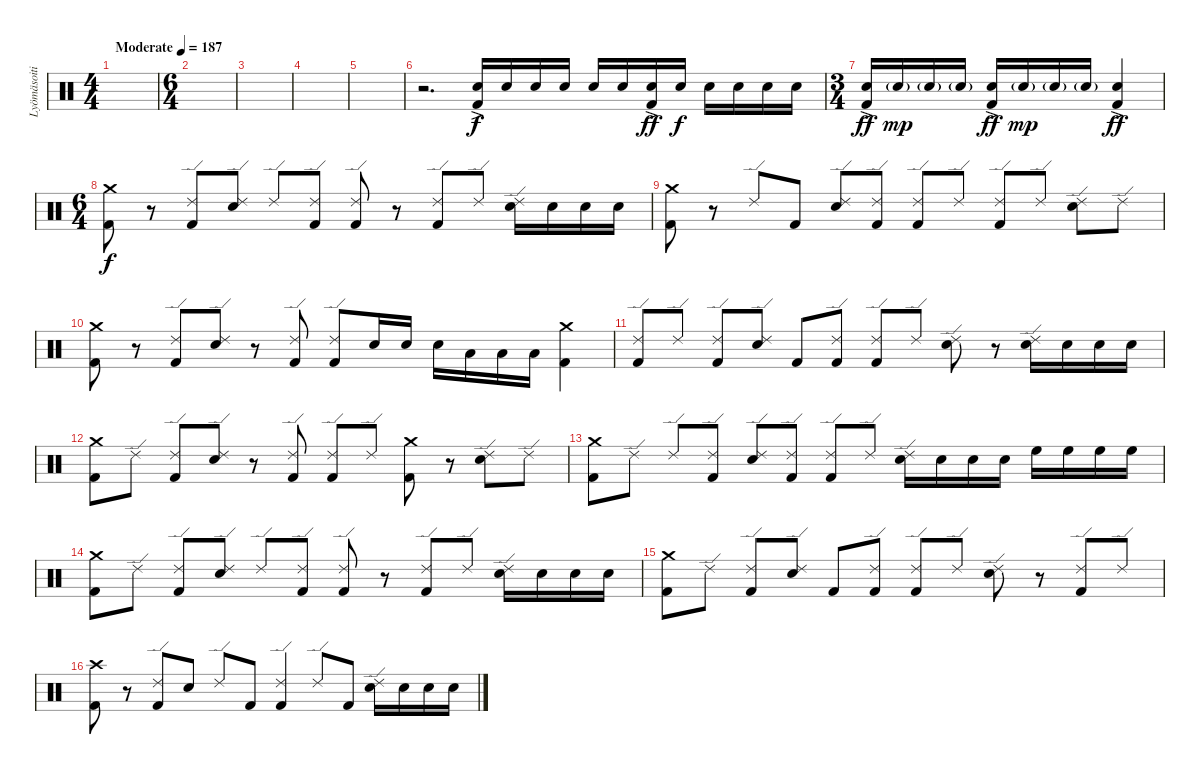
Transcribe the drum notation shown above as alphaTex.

\track ("Lyömäsoitin" "Lyömäsoiti") {instrument percussion}
\staff {score}
\articulation defaults
\ts (4 4)
\tempo (187 "Moderate")
\clef neutral
\ks c
|
\ts (6 4)
|
|
|
|
r.2{d} ("Kick (hit) 2" "Snare (hit) 2"{ac}).16 "Snare (hit) 2".16{dy f} "Snare (hit) 2".16 "Snare (hit) 2".16 "Snare (hit) 2".16 "Snare (hit) 2".16 ("Kick (hit) 2" "Snare (hit) 2"{ac}).16{dy ff} "Snare (hit) 2".16{dy f} "Snare (hit) 2".16 "Snare (hit) 2".16 "Snare (hit) 2".16 "Snare (hit) 2".16 |
\ts (3 4)
("Kick (hit) 2" "Snare (hit) 2"{ac}).16{dy ff} "Snare (hit) 2"{g}.16{dy mp} "Snare (hit) 2"{g}.16 "Snare (hit) 2"{g}.16 ("Snare (hit) 2"{ac} "Kick (hit) 2").16{dy ff} "Snare (hit) 2"{g}.16{dy mp} "Snare (hit) 2"{g}.16 "Snare (hit) 2"{g}.16 ("Snare (hit) 2"{ac} "Kick (hit) 2").4{dy ff} |
\ts (6 4)
("Kick (hit) 2" "Crash medium (hit)").8{dy f} r.8 ("Kick (hit) 2" "Ride (edge) 2").8 ("Snare (hit) 2" "Ride (edge) 2").8 "Ride (edge) 2".8 ("Ride (edge) 2" "Kick (hit) 2").8 ("Ride (edge) 2" "Kick (hit) 2").8 r.8 ("Ride (edge) 2" "Kick (hit) 2").8 "Ride (edge) 2".8 ("Ride (edge) 2" "Snare (hit) 2").16 "Snare (hit) 2".16 "Snare (hit) 2".16 "Snare (hit) 2".16 |
("Kick (hit) 2" "Crash medium (hit)").8 r.8 "Ride (edge) 2".8 "Kick (hit) 2".8 ("Ride (edge) 2" "Snare (hit) 2").8 ("Ride (edge) 2" "Kick (hit) 2").8 ("Ride (edge) 2" "Kick (hit) 2").8 "Ride (edge) 2".8 ("Ride (edge) 2" "Kick (hit) 2").8 "Ride (edge) 2".8 ("Ride (edge) 2" "Snare (hit) 2").8 "Ride (edge) 2".8 |
("Kick (hit) 2" "Crash medium (hit)").8 r.8 ("Kick (hit) 2" "Ride (edge) 2").8 ("Snare (hit) 2" "Ride (edge) 2").8 r.8 ("Ride (edge) 2" "Kick (hit) 2").8 ("Ride (edge) 2" "Kick (hit) 2").8 "Snare (hit) 2".16 "Snare (hit) 2".16 "Snare (hit) 2".16 "Low Tom (hit)".16 "Low Tom (hit)".16 "Low Tom (hit)".16 ("Kick (hit) 2" "Crash medium (hit)").4 |
("Kick (hit) 2" "Ride (edge) 2").8 "Ride (edge) 2".8 ("Kick (hit) 2" "Ride (edge) 2").8 ("Ride (edge) 2" "Snare (hit) 2").8 "Kick (hit) 2".8 ("Kick (hit) 2" "Ride (edge) 2").8 ("Ride (edge) 2" "Kick (hit) 2").8 "Ride (edge) 2".8 ("Ride (edge) 2" "Snare (hit) 2").8 r.8 ("Ride (edge) 2" "Snare (hit) 2").16 "Snare (hit) 2".16 "Snare (hit) 2".16 "Snare (hit) 2".16 |
("Kick (hit) 2" "Crash medium (hit)").8 "Ride (edge) 2".8 ("Kick (hit) 2" "Ride (edge) 2").8 ("Snare (hit) 2" "Ride (edge) 2").8 r.8 ("Ride (edge) 2" "Kick (hit) 2").8 ("Ride (edge) 2" "Kick (hit) 2").8 "Ride (edge) 2".8 ("Crash medium (hit)" "Kick (hit) 2").8 r.8 ("Ride (edge) 2" "Snare (hit) 2").8 "Ride (edge) 2".8 |
("Kick (hit) 2" "Crash medium (hit)").8 "Ride (edge) 2".8 "Ride (edge) 2".8 ("Kick (hit) 2" "Ride (edge) 2").8 ("Ride (edge) 2" "Snare (hit) 2").8 ("Ride (edge) 2" "Kick (hit) 2").8 ("Ride (edge) 2" "Kick (hit) 2").8 "Ride (edge) 2".8 ("Ride (edge) 2" "Snare (hit) 2").16 "Snare (hit) 2".16 "Snare (hit) 2".16 "Snare (hit) 2".16 "High Floor Tom (hit)".16 "High Floor Tom (hit)".16 "High Floor Tom (hit)".16 "High Floor Tom (hit)".16 |
("Kick (hit) 2" "Crash medium (hit)").8 "Ride (edge) 2".8 ("Kick (hit) 2" "Ride (edge) 2").8 ("Snare (hit) 2" "Ride (edge) 2").8 "Ride (edge) 2".8 ("Ride (edge) 2" "Kick (hit) 2").8 ("Ride (edge) 2" "Kick (hit) 2").8 r.8 ("Ride (edge) 2" "Kick (hit) 2").8 "Ride (edge) 2".8 ("Ride (edge) 2" "Snare (hit) 2").16 "Snare (hit) 2".16 "Snare (hit) 2".16 "Snare (hit) 2".16 |
("Kick (hit) 2" "Crash medium (hit)").8 "Ride (edge) 2".8 ("Kick (hit) 2" "Ride (edge) 2").8 ("Ride (edge) 2" "Snare (hit) 2").8 "Kick (hit) 2".8 ("Kick (hit) 2" "Ride (edge) 2").8 ("Ride (edge) 2" "Kick (hit) 2").8 "Ride (edge) 2".8 ("Ride (edge) 2" "Snare (hit) 2").8 r.8 ("Ride (edge) 2" "Kick (hit) 2").8 "Ride (edge) 2".8 |
("Kick (hit) 2" "Crash high (hit)").8 r.8 ("Ride (edge) 2" "Kick (hit) 2").8 "Snare (hit) 2".8 "Ride (edge) 2".8 "Kick (hit) 2".8 ("Ride (edge) 2" "Kick (hit) 2").4 "Ride (edge) 2".8 "Kick (hit) 2".8 ("Ride (edge) 2" "Snare (hit) 2").16 "Snare (hit) 2".16 "Snare (hit) 2".16 "Snare (hit) 2".16
